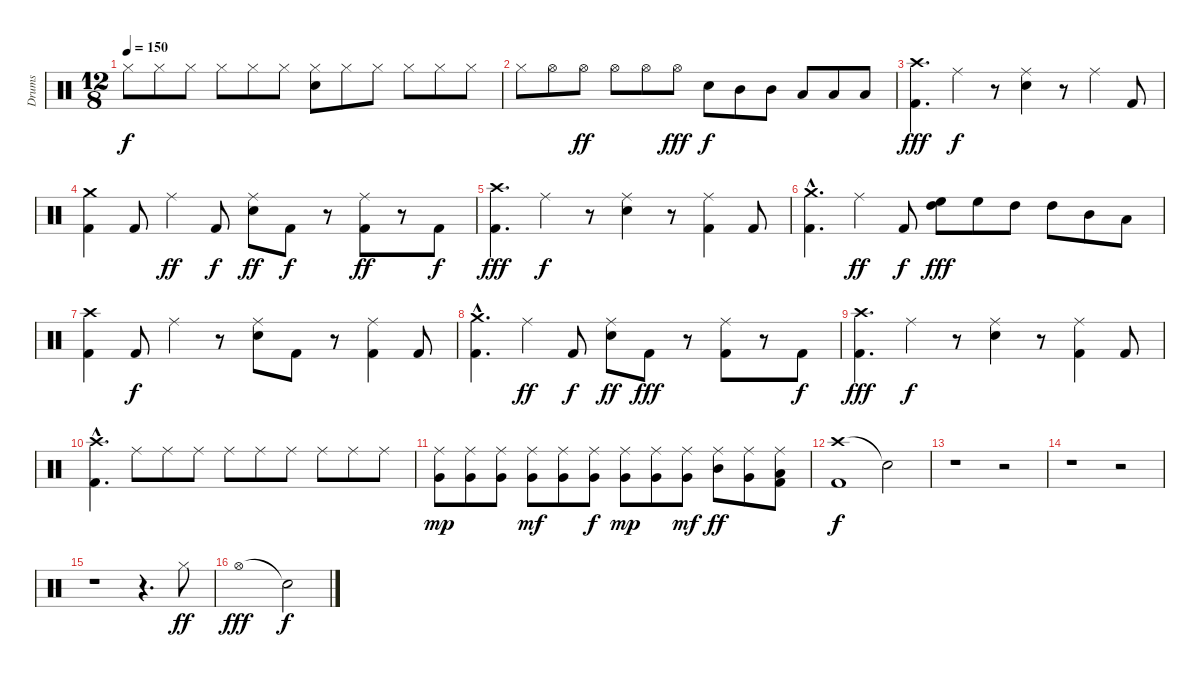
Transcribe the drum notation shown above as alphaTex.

\track ("Drums" "Drums") {instrument percussion}
\staff {score}
\articulation defaults
\ts (12 8)
\tempo 150
\clef neutral
\ks c "Hi-Hat (closed)".8{dy f} "Hi-Hat (closed)".8 "Hi-Hat (closed)".8 "Hi-Hat (closed)".8 "Hi-Hat (closed)".8 "Hi-Hat (closed)".8
("Hi-Hat (closed)" "Snare (hit) 2").8 "Hi-Hat (closed)".8 "Hi-Hat (closed)".8 "Hi-Hat (closed)".8 "Hi-Hat (closed)".8 "Hi-Hat (closed)".8 |
"Hi-Hat (closed)".8 "Hi-Hat (open)".8 "Hi-Hat (open)".8{dy ff} "Hi-Hat (open)".8 "Hi-Hat (open)".8 "Hi-Hat (open)".8{dy fff} "Snare (hit) 2".8{dy f} "Mid Tom (hit)".8 "Mid Tom (hit)".8 "Low Tom (hit)".8 "Low Tom (hit)".8 "Low Floor Tom (hit)".8 |
("Crash high (hit)" "Kick (hit) 2").4{d dy fff} "Ride (middle)".4{dy f} r.8 ("Ride (middle)" "Snare (hit) 2").4 r.8 "Ride (middle)".4 "Kick (hit) 2".8 |
("Crash medium (hit)" "Kick (hit) 2").4 "Kick (hit) 2".8 "Ride (middle)".4{dy ff} "Kick (hit) 2".8{dy f} ("Ride (middle)" "Snare (hit) 2").8{dy ff} "Kick (hit) 2".8{dy f} r.8 ("Ride (middle)" "Kick (hit) 2").8{dy ff} r.8 "Kick (hit) 2".8{dy f} |
("Crash high (hit)" "Kick (hit) 2").4{d dy fff} "Ride (middle)".4{dy f} r.8 ("Ride (middle)" "Snare (hit) 2").4 r.8 ("Ride (middle)" "Kick (hit) 2").4 "Kick (hit) 2".8 |
("Crash medium (hit)" "Kick (hit) 2"{hac}).4{d} "Ride (middle)".4{dy ff} "Kick (hit) 2".8{dy f} ("High Tom (hit)" "High Floor Tom (hit)").8{dy fff} "High Floor Tom (hit)".8 "High Tom (hit)".8 "High Tom (hit)".8 "Mid Tom (hit)".8 "Low Floor Tom (hit)".8 |
("Crash high (hit)" "Kick (hit) 2").4 "Kick (hit) 2".8{dy f} "Ride (middle)".4 r.8 ("Ride (middle)" "Snare (hit) 2").8 "Kick (hit) 2".8 r.8 ("Ride (middle)" "Kick (hit) 2").4 "Kick (hit) 2".8 |
("Crash medium (hit)" "Kick (hit) 2"{hac}).4{d} "Ride (middle)".4{dy ff} "Kick (hit) 2".8{dy f} ("Ride (middle)" "Snare (hit) 2").8{dy ff} "Kick (hit) 2".8{dy fff} r.8 ("Ride (middle)" "Kick (hit) 2").8 r.8 "Kick (hit) 2".8{dy f} |
("Crash high (hit)" "Kick (hit) 2").4{d dy fff} "Ride (middle)".4{dy f} r.8 ("Ride (middle)" "Snare (hit) 2").4 r.8 ("Ride (middle)" "Kick (hit) 2").4 "Kick (hit) 2".8 |
("Crash high (hit)"{hac} "Kick (hit) 2"{hac}).4{d} "Ride (middle)".8 "Ride (middle)".8 "Ride (middle)".8 "Ride (middle)".8 "Ride (middle)".8 "Ride (middle)".8 "Ride (middle)".8 "Ride (middle)".8 "Ride (middle)".8 |
("Ride (middle)" "Very Low Tom (hit)").8{dy mp} ("Ride (middle)" "Very Low Tom (hit)").8 ("Ride (middle)" "Very Low Tom (hit)").8 ("Ride (middle)" "Very Low Tom (hit)").8{dy mf} ("Ride (middle)" "Very Low Tom (hit)").8 ("Ride (middle)" "Very Low Tom (hit)").8{dy f} ("Ride (middle)" "Very Low Tom (hit)").8{dy mp} ("Ride (middle)" "Very Low Tom (hit)").8 ("Ride (middle)" "Very Low Tom (hit)").8{dy mf} ("Ride (middle)" "Mid Tom (hit)").8{dy ff} ("Ride (middle)" "Very Low Tom (hit)").8 ("Ride (middle)" "Low Floor Tom (hit)" "Kick (hit) 2").8 |
("Crash high (hit)" "Kick (hit) 2").1{dy f} "Snare (hit)"{t}.2 |
r.1 r.2 |
r.1 r.2 |
r.1 r.4{d} "Hi-Hat (closed)".8{dy ff} |
"Hi-Hat (open)".1{dy fff} "Snare (hit)"{t}.2{dy f}
